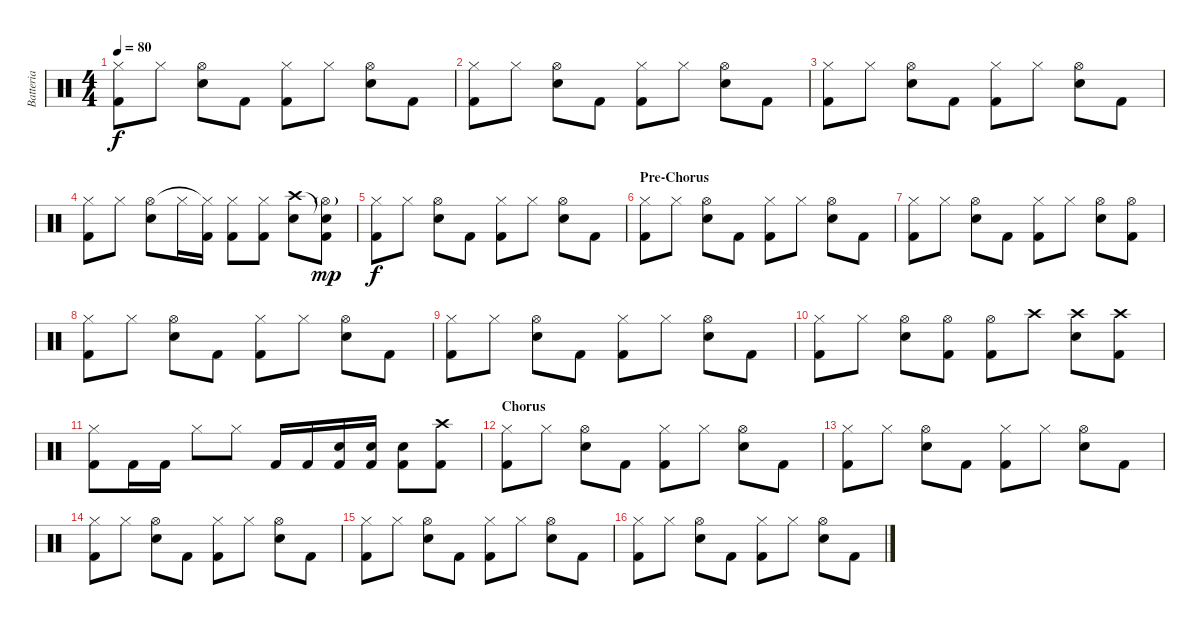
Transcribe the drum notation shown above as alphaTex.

\track ("Batteria" "Batteria") {instrument percussion}
\staff {score}
\articulation defaults
\ts (4 4)
\tempo 80
\clef neutral
\ks c
("Kick (hit) 2" "Hi-Hat (closed)").8{dy f} "Hi-Hat (closed)".8 ("Electric Snare (hit)" "Hi-Hat (open)").8 "Kick (hit) 2".8 ("Kick (hit) 2" "Hi-Hat (closed)").8 "Hi-Hat (closed)".8 ("Electric Snare (hit)" "Hi-Hat (open)").8 "Kick (hit) 2".8 |
("Kick (hit) 2" "Hi-Hat (closed)").8 "Hi-Hat (closed)".8 ("Electric Snare (hit)" "Hi-Hat (open)").8 "Kick (hit) 2".8 ("Kick (hit) 2" "Hi-Hat (closed)").8 "Hi-Hat (closed)".8 ("Electric Snare (hit)" "Hi-Hat (open)").8 "Kick (hit) 2".8 |
("Kick (hit) 2" "Hi-Hat (closed)").8 "Hi-Hat (closed)".8 ("Electric Snare (hit)" "Hi-Hat (open)").8 "Kick (hit) 2".8 ("Kick (hit) 2" "Hi-Hat (closed)").8 "Hi-Hat (closed)".8 ("Electric Snare (hit)" "Hi-Hat (open)").8 "Kick (hit) 2".8 |
("Kick (hit) 2" "Hi-Hat (closed)").8 "Hi-Hat (closed)".8 ("Electric Snare (hit)" "Hi-Hat (open)").8 "Hi-Hat (closed)".16 ("Kick (hit) 2" "Hi-Hat (closed)"{t}).16 ("Kick (hit) 2" "Hi-Hat (closed)").8 ("Kick (hit) 2" "Hi-Hat (closed)").8 ("Electric Snare (hit)" "Crash high (hit)").8 ("Kick (hit) 2" "Snare (hit)"{t} "Hi-Hat (open)"{g}).8{dy mp} |
("Kick (hit) 2" "Hi-Hat (closed)").8{dy f} "Hi-Hat (closed)".8 ("Electric Snare (hit)" "Hi-Hat (open)").8 "Kick (hit) 2".8 ("Kick (hit) 2" "Hi-Hat (closed)").8 "Hi-Hat (closed)".8 ("Electric Snare (hit)" "Hi-Hat (open)").8 "Kick (hit) 2".8 |
\section ("" "Pre-Chorus")
("Kick (hit) 2" "Hi-Hat (closed)").8 "Hi-Hat (closed)".8 ("Electric Snare (hit)" "Hi-Hat (open)").8 "Kick (hit) 2".8 ("Kick (hit) 2" "Hi-Hat (closed)").8 "Hi-Hat (closed)".8 ("Electric Snare (hit)" "Hi-Hat (open)").8 "Kick (hit) 2".8 |
("Kick (hit) 2" "Hi-Hat (closed)").8 "Hi-Hat (closed)".8 ("Electric Snare (hit)" "Hi-Hat (open)").8 "Kick (hit) 2".8 ("Kick (hit) 2" "Hi-Hat (closed)").8 "Hi-Hat (closed)".8 ("Electric Snare (hit)" "Hi-Hat (open)").8 ("Kick (hit) 2" "Hi-Hat (open)").8 |
("Kick (hit) 2" "Hi-Hat (closed)").8 "Hi-Hat (closed)".8 ("Electric Snare (hit)" "Hi-Hat (open)").8 "Kick (hit) 2".8 ("Kick (hit) 2" "Hi-Hat (closed)").8 "Hi-Hat (closed)".8 ("Electric Snare (hit)" "Hi-Hat (open)").8 "Kick (hit) 2".8 |
("Kick (hit) 2" "Hi-Hat (closed)").8 "Hi-Hat (closed)".8 ("Electric Snare (hit)" "Hi-Hat (open)").8 "Kick (hit) 2".8 ("Kick (hit) 2" "Hi-Hat (closed)").8 "Hi-Hat (closed)".8 ("Electric Snare (hit)" "Hi-Hat (open)").8 "Kick (hit) 2".8 |
("Kick (hit) 2" "Hi-Hat (closed)").8 "Hi-Hat (closed)".8 ("Electric Snare (hit)" "Hi-Hat (open)").8 ("Kick (hit) 2" "Hi-Hat (open)").8 ("Kick (hit) 2" "Hi-Hat (open)").8 "Crash high (hit)".8 ("Electric Snare (hit)" "Crash high (hit)").8 ("Kick (hit) 2" "Crash high (hit)").8 |
("Kick (hit) 2" "Hi-Hat (closed)").8 "Kick (hit) 2".16 "Kick (hit) 2".16 "Hi-Hat (closed)".8 "Hi-Hat (closed)".8 "Kick (hit) 2".16 "Kick (hit) 2".16 ("Kick (hit) 2" "Electric Snare (hit)").16 ("Kick (hit) 2" "Electric Snare (hit)").16 ("Kick (hit) 2" "Electric Snare (hit)").8 ("Kick (hit) 2" "Crash high (hit)").8 |
\section ("" "Chorus")
("Kick (hit) 2" "Hi-Hat (closed)").8 "Hi-Hat (closed)".8 ("Electric Snare (hit)" "Hi-Hat (open)").8 "Kick (hit) 2".8 ("Kick (hit) 2" "Hi-Hat (closed)").8 "Hi-Hat (closed)".8 ("Electric Snare (hit)" "Hi-Hat (open)").8 "Kick (hit) 2".8 |
("Kick (hit) 2" "Hi-Hat (closed)").8 "Hi-Hat (closed)".8 ("Electric Snare (hit)" "Hi-Hat (open)").8 "Kick (hit) 2".8 ("Kick (hit) 2" "Hi-Hat (closed)").8 "Hi-Hat (closed)".8 ("Electric Snare (hit)" "Hi-Hat (open)").8 "Kick (hit) 2".8 |
("Kick (hit) 2" "Hi-Hat (closed)").8 "Hi-Hat (closed)".8 ("Electric Snare (hit)" "Hi-Hat (open)").8 "Kick (hit) 2".8 ("Kick (hit) 2" "Hi-Hat (closed)").8 "Hi-Hat (closed)".8 ("Electric Snare (hit)" "Hi-Hat (open)").8 "Kick (hit) 2".8 |
("Kick (hit) 2" "Hi-Hat (closed)").8 "Hi-Hat (closed)".8 ("Electric Snare (hit)" "Hi-Hat (open)").8 "Kick (hit) 2".8 ("Kick (hit) 2" "Hi-Hat (closed)").8 "Hi-Hat (closed)".8 ("Electric Snare (hit)" "Hi-Hat (open)").8 "Kick (hit) 2".8 |
("Kick (hit) 2" "Hi-Hat (closed)").8 "Hi-Hat (closed)".8 ("Electric Snare (hit)" "Hi-Hat (open)").8 "Kick (hit) 2".8 ("Kick (hit) 2" "Hi-Hat (closed)").8 "Hi-Hat (closed)".8 ("Electric Snare (hit)" "Hi-Hat (open)").8 "Kick (hit) 2".8
